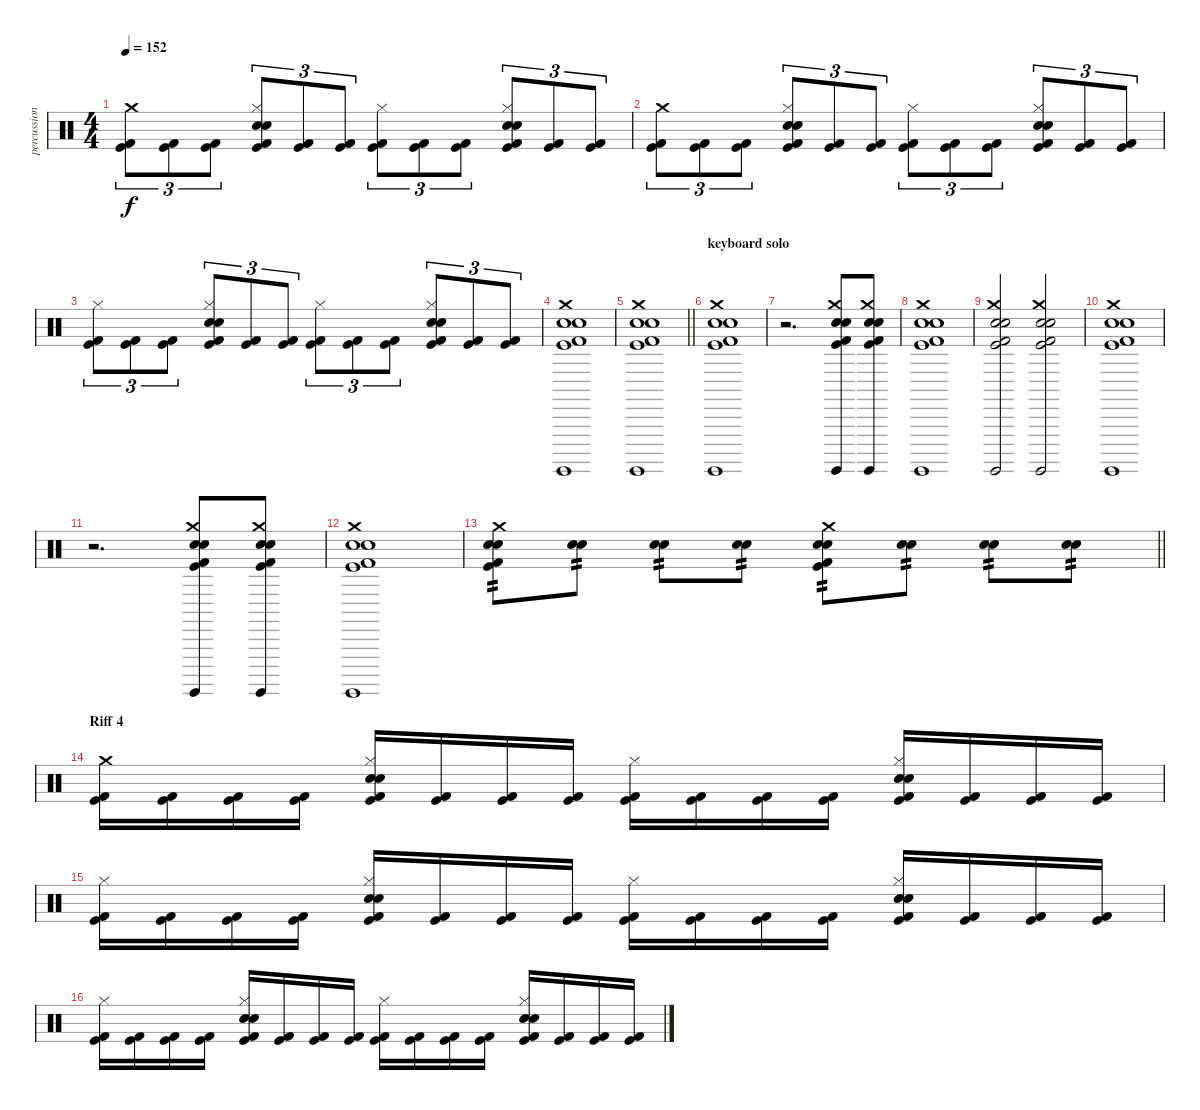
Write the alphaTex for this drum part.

\track ("percussion" "percussion") {instrument percussion}
\staff {score}
\articulation defaults
\ts (4 4)
\tempo 152
\clef neutral
\ks c
("Crash medium (hit)" "Kick (hit)" "Kick (hit) 2").8{tu (3 2) dy f} ("Kick (hit)" "Kick (hit) 2").8{tu (3 2)} ("Kick (hit)" "Kick (hit) 2").8{tu (3 2)} ("Hi-Hat (closed)" "Electric Snare (hit)" "Snare (hit) 2" "Kick (hit)" "Kick (hit) 2").8{tu (3 2)} ("Kick (hit)" "Kick (hit) 2").8{tu (3 2)} ("Kick (hit)" "Kick (hit) 2").8{tu (3 2)} ("Hi-Hat (closed)" "Kick (hit)" "Kick (hit) 2").8{tu (3 2)} ("Kick (hit)" "Kick (hit) 2").8{tu (3 2)} ("Kick (hit)" "Kick (hit) 2").8{tu (3 2)} ("Hi-Hat (closed)" "Electric Snare (hit)" "Snare (hit) 2" "Kick (hit)" "Kick (hit) 2").8{tu (3 2)} ("Kick (hit)" "Kick (hit) 2").8{tu (3 2)} ("Kick (hit)" "Kick (hit) 2").8{tu (3 2)} |
("Crash medium (hit)" "Kick (hit)" "Kick (hit) 2").8{tu (3 2)} ("Kick (hit)" "Kick (hit) 2").8{tu (3 2)} ("Kick (hit)" "Kick (hit) 2").8{tu (3 2)} ("Hi-Hat (closed)" "Electric Snare (hit)" "Snare (hit) 2" "Kick (hit)" "Kick (hit) 2").8{tu (3 2)} ("Kick (hit)" "Kick (hit) 2").8{tu (3 2)} ("Kick (hit)" "Kick (hit) 2").8{tu (3 2)} ("Hi-Hat (closed)" "Kick (hit)" "Kick (hit) 2").8{tu (3 2)} ("Kick (hit)" "Kick (hit) 2").8{tu (3 2)} ("Kick (hit)" "Kick (hit) 2").8{tu (3 2)} ("Hi-Hat (closed)" "Electric Snare (hit)" "Snare (hit) 2" "Kick (hit)" "Kick (hit) 2").8{tu (3 2)} ("Kick (hit)" "Kick (hit) 2").8{tu (3 2)} ("Kick (hit)" "Kick (hit) 2").8{tu (3 2)} |
("Hi-Hat (closed)" "Kick (hit)" "Kick (hit) 2").8{tu (3 2)} ("Kick (hit)" "Kick (hit) 2").8{tu (3 2)} ("Kick (hit)" "Kick (hit) 2").8{tu (3 2)} ("Hi-Hat (closed)" "Electric Snare (hit)" "Snare (hit) 2" "Kick (hit)" "Kick (hit) 2").8{tu (3 2)} ("Kick (hit)" "Kick (hit) 2").8{tu (3 2)} ("Kick (hit)" "Kick (hit) 2").8{tu (3 2)} ("Hi-Hat (closed)" "Kick (hit)" "Kick (hit) 2").8{tu (3 2)} ("Kick (hit)" "Kick (hit) 2").8{tu (3 2)} ("Kick (hit)" "Kick (hit) 2").8{tu (3 2)} ("Hi-Hat (closed)" "Electric Snare (hit)" "Snare (hit) 2" "Kick (hit)" "Kick (hit) 2").8{tu (3 2)} ("Kick (hit)" "Kick (hit) 2").8{tu (3 2)} ("Kick (hit)" "Kick (hit) 2").8{tu (3 2)} |
("Crash medium (hit)" "Electric Snare (hit)" "Snare (hit) 2" "Surdo (hit)" "Kick (hit) 2" "Kick (hit)").1 |
\barLineRight lightlight
("Crash medium (hit)" "Electric Snare (hit)" "Snare (hit) 2" "Surdo (hit)" "Kick (hit) 2" "Kick (hit)").1 |
\section ("" "keyboard solo")
("Crash medium (hit)" "Electric Snare (hit)" "Snare (hit) 2" "Surdo (hit)" "Kick (hit) 2" "Kick (hit)").1 |
r.2{d} ("Crash medium (hit)" "Electric Snare (hit)" "Snare (hit) 2" "Surdo (hit)" "Kick (hit) 2" "Kick (hit)").8 ("Crash medium (hit)" "Electric Snare (hit)" "Snare (hit) 2" "Surdo (hit)" "Kick (hit) 2" "Kick (hit)").8 |
("Crash medium (hit)" "Electric Snare (hit)" "Snare (hit) 2" "Surdo (hit)" "Kick (hit) 2" "Kick (hit)").1 |
("Crash medium (hit)" "Electric Snare (hit)" "Snare (hit) 2" "Surdo (hit)" "Kick (hit) 2" "Kick (hit)").2 ("Crash medium (hit)" "Electric Snare (hit)" "Snare (hit) 2" "Surdo (hit)" "Kick (hit) 2" "Kick (hit)").2 |
("Crash medium (hit)" "Electric Snare (hit)" "Snare (hit) 2" "Surdo (hit)" "Kick (hit) 2" "Kick (hit)").1 |
r.2{d} ("Crash medium (hit)" "Electric Snare (hit)" "Snare (hit) 2" "Surdo (hit)" "Kick (hit) 2" "Kick (hit)").8 ("Crash medium (hit)" "Electric Snare (hit)" "Snare (hit) 2" "Surdo (hit)" "Kick (hit) 2" "Kick (hit)").8 |
("Crash medium (hit)" "Electric Snare (hit)" "Snare (hit) 2" "Surdo (hit)" "Kick (hit) 2" "Kick (hit)").1 |
\barLineRight lightlight
("Crash medium (hit)" "Electric Snare (hit)" "Snare (hit) 2" "Kick (hit) 2" "Kick (hit)").8{tp 2} ("Electric Snare (hit)" "Snare (hit) 2").8{tp 2} ("Electric Snare (hit)" "Snare (hit) 2").8{tp 2} ("Electric Snare (hit)" "Snare (hit) 2").8{tp 2} ("Crash medium (hit)" "Electric Snare (hit)" "Snare (hit) 2" "Kick (hit) 2" "Kick (hit)").8{tp 2} ("Electric Snare (hit)" "Snare (hit) 2").8{tp 2} ("Electric Snare (hit)" "Snare (hit) 2").8{tp 2} ("Electric Snare (hit)" "Snare (hit) 2").8{tp 2} |
\section ("" "Riff 4")
("Crash medium (hit)" "Kick (hit) 2" "Kick (hit)").16 ("Kick (hit) 2" "Kick (hit)").16 ("Kick (hit) 2" "Kick (hit)").16 ("Kick (hit) 2" "Kick (hit)").16 ("Hi-Hat (closed)" "Electric Snare (hit)" "Snare (hit) 2" "Kick (hit) 2" "Kick (hit)").16 ("Kick (hit) 2" "Kick (hit)").16 ("Kick (hit) 2" "Kick (hit)").16 ("Kick (hit) 2" "Kick (hit)").16 ("Hi-Hat (closed)" "Kick (hit) 2" "Kick (hit)").16 ("Kick (hit) 2" "Kick (hit)").16 ("Kick (hit) 2" "Kick (hit)").16 ("Kick (hit) 2" "Kick (hit)").16 ("Hi-Hat (closed)" "Electric Snare (hit)" "Snare (hit) 2" "Kick (hit) 2" "Kick (hit)").16 ("Kick (hit) 2" "Kick (hit)").16 ("Kick (hit) 2" "Kick (hit)").16 ("Kick (hit) 2" "Kick (hit)").16 |
("Hi-Hat (closed)" "Kick (hit) 2" "Kick (hit)").16 ("Kick (hit) 2" "Kick (hit)").16 ("Kick (hit) 2" "Kick (hit)").16 ("Kick (hit) 2" "Kick (hit)").16 ("Hi-Hat (closed)" "Electric Snare (hit)" "Snare (hit) 2" "Kick (hit) 2" "Kick (hit)").16 ("Kick (hit) 2" "Kick (hit)").16 ("Kick (hit) 2" "Kick (hit)").16 ("Kick (hit) 2" "Kick (hit)").16 ("Hi-Hat (closed)" "Kick (hit) 2" "Kick (hit)").16 ("Kick (hit) 2" "Kick (hit)").16 ("Kick (hit) 2" "Kick (hit)").16 ("Kick (hit) 2" "Kick (hit)").16 ("Hi-Hat (closed)" "Electric Snare (hit)" "Snare (hit) 2" "Kick (hit) 2" "Kick (hit)").16 ("Kick (hit) 2" "Kick (hit)").16 ("Kick (hit) 2" "Kick (hit)").16 ("Kick (hit) 2" "Kick (hit)").16 |
("Hi-Hat (closed)" "Kick (hit) 2" "Kick (hit)").16 ("Kick (hit) 2" "Kick (hit)").16 ("Kick (hit) 2" "Kick (hit)").16 ("Kick (hit) 2" "Kick (hit)").16 ("Hi-Hat (closed)" "Electric Snare (hit)" "Snare (hit) 2" "Kick (hit) 2" "Kick (hit)").16 ("Kick (hit) 2" "Kick (hit)").16 ("Kick (hit) 2" "Kick (hit)").16 ("Kick (hit) 2" "Kick (hit)").16 ("Hi-Hat (closed)" "Kick (hit) 2" "Kick (hit)").16 ("Kick (hit) 2" "Kick (hit)").16 ("Kick (hit) 2" "Kick (hit)").16 ("Kick (hit) 2" "Kick (hit)").16 ("Hi-Hat (closed)" "Electric Snare (hit)" "Snare (hit) 2" "Kick (hit) 2" "Kick (hit)").16 ("Kick (hit) 2" "Kick (hit)").16 ("Kick (hit) 2" "Kick (hit)").16 ("Kick (hit) 2" "Kick (hit)").16
